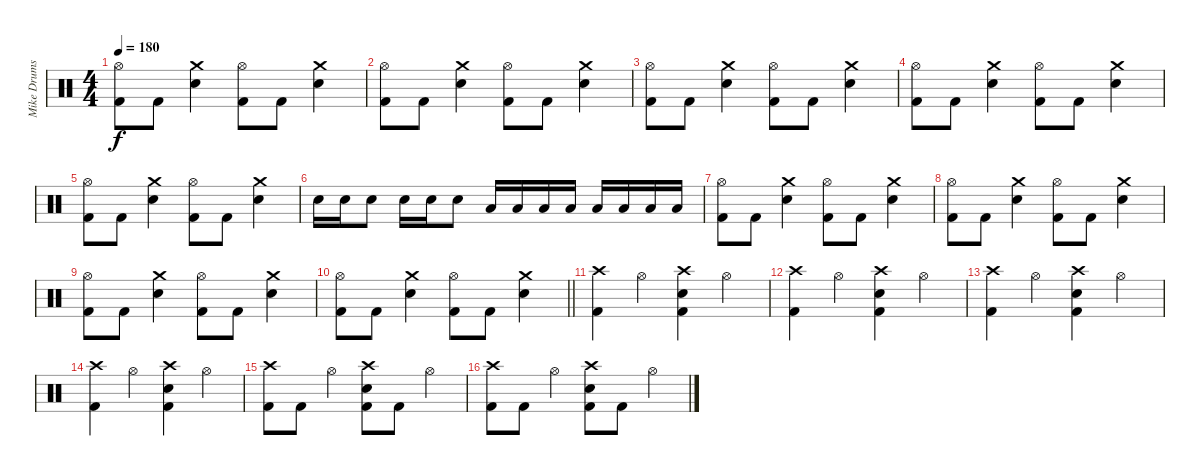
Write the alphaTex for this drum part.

\track ("Mike Drums" "Mike Drums") {instrument percussion}
\staff {score}
\articulation defaults
\ts (4 4)
\tempo 180
\clef neutral
\ks c
("Hi-Hat (open)" "Kick (hit) 2").8{dy f} "Kick (hit) 2".8 ("Crash medium (hit)" "Snare (hit) 2").4 ("Hi-Hat (open)" "Kick (hit) 2").8 "Kick (hit) 2".8 ("Crash medium (hit)" "Snare (hit) 2").4 |
("Hi-Hat (open)" "Kick (hit) 2").8 "Kick (hit) 2".8 ("Crash medium (hit)" "Snare (hit) 2").4 ("Hi-Hat (open)" "Kick (hit) 2").8 "Kick (hit) 2".8 ("Crash medium (hit)" "Snare (hit) 2").4 |
("Hi-Hat (open)" "Kick (hit) 2").8 "Kick (hit) 2".8 ("Crash medium (hit)" "Snare (hit) 2").4 ("Hi-Hat (open)" "Kick (hit) 2").8 "Kick (hit) 2".8 ("Crash medium (hit)" "Snare (hit) 2").4 |
("Hi-Hat (open)" "Kick (hit) 2").8 "Kick (hit) 2".8 ("Crash medium (hit)" "Snare (hit) 2").4 ("Hi-Hat (open)" "Kick (hit) 2").8 "Kick (hit) 2".8 ("Crash medium (hit)" "Snare (hit) 2").4 |
("Hi-Hat (open)" "Kick (hit) 2").8 "Kick (hit) 2".8 ("Crash medium (hit)" "Snare (hit) 2").4 ("Hi-Hat (open)" "Kick (hit) 2").8 "Kick (hit) 2".8 ("Crash medium (hit)" "Snare (hit) 2").4 |
"Snare (hit) 2".16 "Snare (hit) 2".16 "Snare (hit) 2".8 "Snare (hit) 2".16 "Snare (hit) 2".16 "Snare (hit) 2".8 "Low Tom (hit)".16 "Low Tom (hit)".16 "Low Tom (hit)".16 "Low Tom (hit)".16 "Low Tom (hit)".16 "Low Tom (hit)".16 "Low Tom (hit)".16 "Low Tom (hit)".16 |
("Hi-Hat (open)" "Kick (hit) 2").8 "Kick (hit) 2".8 ("Crash medium (hit)" "Snare (hit) 2").4 ("Hi-Hat (open)" "Kick (hit) 2").8 "Kick (hit) 2".8 ("Crash medium (hit)" "Snare (hit) 2").4 |
("Hi-Hat (open)" "Kick (hit) 2").8 "Kick (hit) 2".8 ("Crash medium (hit)" "Snare (hit) 2").4 ("Hi-Hat (open)" "Kick (hit) 2").8 "Kick (hit) 2".8 ("Crash medium (hit)" "Snare (hit) 2").4 |
("Hi-Hat (open)" "Kick (hit) 2").8 "Kick (hit) 2".8 ("Crash medium (hit)" "Snare (hit) 2").4 ("Hi-Hat (open)" "Kick (hit) 2").8 "Kick (hit) 2".8 ("Crash medium (hit)" "Snare (hit) 2").4 |
\barLineRight lightlight
("Hi-Hat (open)" "Kick (hit) 2").8 "Kick (hit) 2".8 ("Crash medium (hit)" "Snare (hit) 2").4 ("Hi-Hat (open)" "Kick (hit) 2").8 "Kick (hit) 2".8 ("Crash medium (hit)" "Snare (hit) 2").4 |
("Crash high (hit)" "Kick (hit) 2").4 "Hi-Hat (open)".4 ("Crash high (hit)" "Snare (hit) 2" "Kick (hit) 2").4 "Hi-Hat (open)".4 |
("Crash high (hit)" "Kick (hit) 2").4 "Hi-Hat (open)".4 ("Crash high (hit)" "Snare (hit) 2" "Kick (hit) 2").4 "Hi-Hat (open)".4 |
("Crash high (hit)" "Kick (hit) 2").4 "Hi-Hat (open)".4 ("Crash high (hit)" "Snare (hit) 2" "Kick (hit) 2").4 "Hi-Hat (open)".4 |
("Crash high (hit)" "Kick (hit) 2").4 "Hi-Hat (open)".4 ("Crash high (hit)" "Snare (hit) 2" "Kick (hit) 2").4 "Hi-Hat (open)".4 |
("Crash high (hit)" "Kick (hit) 2").8 "Kick (hit) 2".8 "Hi-Hat (open)".4 ("Crash high (hit)" "Snare (hit) 2" "Kick (hit) 2").8 "Kick (hit) 2".8 "Hi-Hat (open)".4 |
("Crash high (hit)" "Kick (hit) 2").8 "Kick (hit) 2".8 "Hi-Hat (open)".4 ("Crash high (hit)" "Snare (hit) 2" "Kick (hit) 2").8 "Kick (hit) 2".8 "Hi-Hat (open)".4
